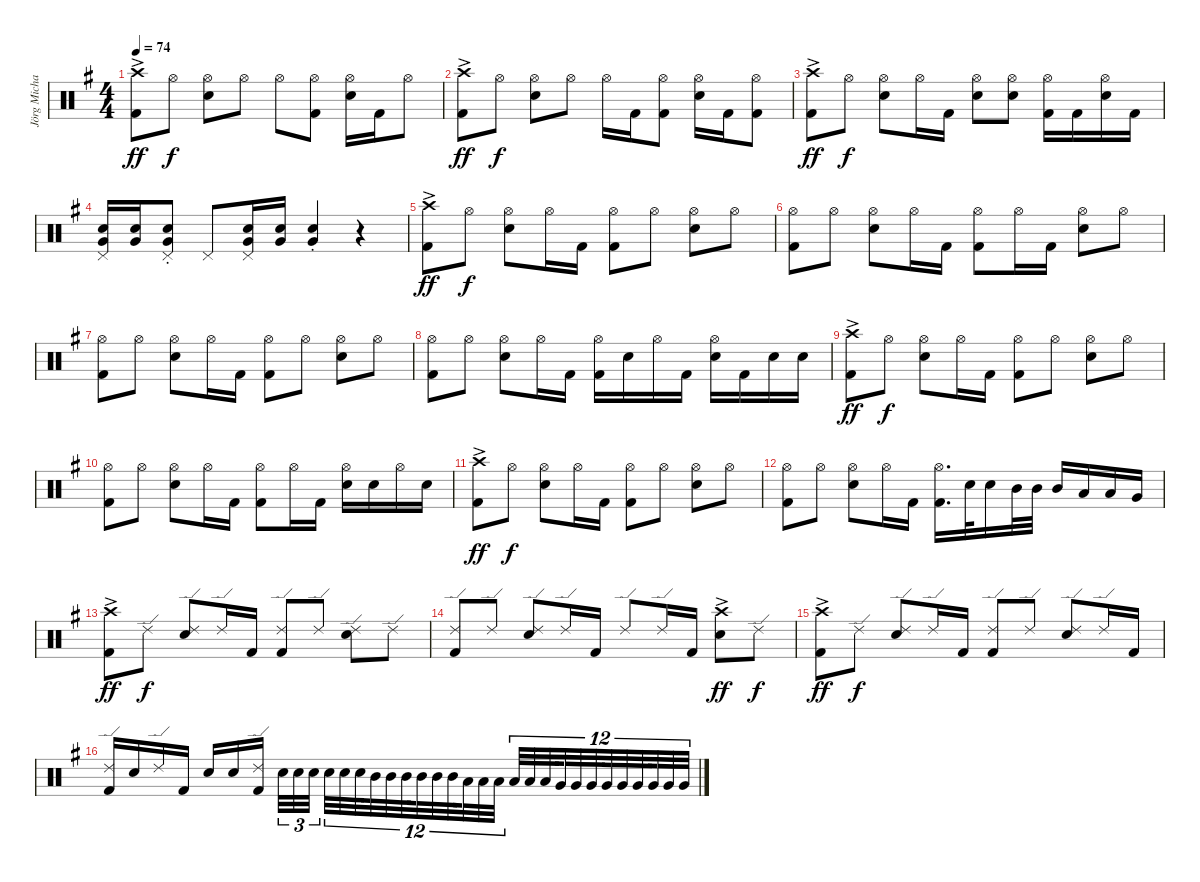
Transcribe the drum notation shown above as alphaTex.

\track ("Jörg Michael" "Jörg Micha") {instrument percussion}
\staff {score}
\articulation defaults
\ts (4 4)
\tempo 74
\clef neutral
\ks g
("Crash high (hit)"{ac} "Kick (hit) 2"{ac}).8{dy ff} "Hi-Hat (open)".8{dy f} ("Hi-Hat (open)" "Electric Snare (hit)").8 "Hi-Hat (open)".8 "Hi-Hat (open)".8 ("Hi-Hat (open)" "Kick (hit) 2").8 ("Hi-Hat (open)" "Electric Snare (hit)").16 "Kick (hit) 2".16 "Hi-Hat (open)".8 |
("Crash high (hit)"{ac} "Kick (hit) 2"{ac}).8{dy ff} "Hi-Hat (open)".8{dy f} ("Hi-Hat (open)" "Electric Snare (hit)").8 "Hi-Hat (open)".8 "Hi-Hat (open)".16 "Kick (hit) 2".16 ("Hi-Hat (open)" "Kick (hit) 2").8 ("Hi-Hat (open)" "Electric Snare (hit)").16 "Kick (hit) 2".16 ("Kick (hit) 2" "Hi-Hat (open)").8 |
("Crash high (hit)"{ac} "Kick (hit) 2"{ac}).8{dy ff} "Hi-Hat (open)".8{dy f} ("Hi-Hat (open)" "Electric Snare (hit)").8 "Hi-Hat (open)".16 "Kick (hit) 2".16 ("Hi-Hat (open)" "Electric Snare (hit)").8 ("Hi-Hat (open)" "Electric Snare (hit)").8 ("Hi-Hat (open)" "Kick (hit) 2").16 "Kick (hit) 2".16 ("Hi-Hat (open)" "Electric Snare (hit)").16 "Kick (hit) 2".16 |
("Electric Snare (hit)" "Very Low Tom (hit)" "Pedal Hi-Hat (hit)").16 ("Electric Snare (hit)" "Very Low Tom (hit)").16 ("Electric Snare (hit)"{st} "Very Low Tom (hit)"{st} "Pedal Hi-Hat (hit)").8 "Pedal Hi-Hat (hit)".8 ("Electric Snare (hit)" "Very Low Tom (hit)" "Pedal Hi-Hat (hit)").16 ("Electric Snare (hit)" "Very Low Tom (hit)").16 ("Electric Snare (hit)"{st} "Very Low Tom (hit)"{st}).4 r.4 |
("Crash high (hit)"{ac} "Kick (hit) 2"{ac}).8{dy ff} "Hi-Hat (open)".8{dy f} ("Hi-Hat (open)" "Electric Snare (hit)").8 "Hi-Hat (open)".16 "Kick (hit) 2".16 ("Hi-Hat (open)" "Kick (hit) 2").8 "Hi-Hat (open)".8 ("Hi-Hat (open)" "Electric Snare (hit)").8 "Hi-Hat (open)".8 |
("Hi-Hat (open)" "Kick (hit) 2").8 "Hi-Hat (open)".8 ("Hi-Hat (open)" "Electric Snare (hit)").8 "Hi-Hat (open)".16 "Kick (hit) 2".16 ("Hi-Hat (open)" "Kick (hit) 2").8 "Hi-Hat (open)".16 "Kick (hit) 2".16 ("Hi-Hat (open)" "Electric Snare (hit)").8 "Hi-Hat (open)".8 |
("Hi-Hat (open)" "Kick (hit) 2").8 "Hi-Hat (open)".8 ("Hi-Hat (open)" "Electric Snare (hit)").8 "Hi-Hat (open)".16 "Kick (hit) 2".16 ("Hi-Hat (open)" "Kick (hit) 2").8 "Hi-Hat (open)".8 ("Hi-Hat (open)" "Electric Snare (hit)").8 "Hi-Hat (open)".8 |
("Hi-Hat (open)" "Kick (hit) 2").8 "Hi-Hat (open)".8 ("Hi-Hat (open)" "Electric Snare (hit)").8 "Hi-Hat (open)".16 "Kick (hit) 2".16 ("Hi-Hat (open)" "Kick (hit) 2").16 "Electric Snare (hit)".16 "Hi-Hat (open)".16 "Kick (hit) 2".16 ("Hi-Hat (open)" "Electric Snare (hit)").16 "Kick (hit) 2".16 "Electric Snare (hit)".16 "Electric Snare (hit)".16 |
("Crash high (hit)"{ac} "Kick (hit) 2"{ac}).8{dy ff} "Hi-Hat (open)".8{dy f} ("Hi-Hat (open)" "Electric Snare (hit)").8 "Hi-Hat (open)".16 "Kick (hit) 2".16 ("Hi-Hat (open)" "Kick (hit) 2").8 "Hi-Hat (open)".8 ("Hi-Hat (open)" "Electric Snare (hit)").8 "Hi-Hat (open)".8 |
("Hi-Hat (open)" "Kick (hit) 2").8 "Hi-Hat (open)".8 ("Hi-Hat (open)" "Electric Snare (hit)").8 "Hi-Hat (open)".16 "Kick (hit) 2".16 ("Hi-Hat (open)" "Kick (hit) 2").8 "Hi-Hat (open)".16 "Kick (hit) 2".16 ("Hi-Hat (open)" "Electric Snare (hit)").16 "Electric Snare (hit)".16 "Hi-Hat (open)".16 "Electric Snare (hit)".16 |
("Crash high (hit)"{ac} "Kick (hit) 2"{ac}).8{dy ff} "Hi-Hat (open)".8{dy f} ("Hi-Hat (open)" "Electric Snare (hit)").8 "Hi-Hat (open)".16 "Kick (hit) 2".16 ("Hi-Hat (open)" "Kick (hit) 2").8 "Hi-Hat (open)".8 ("Hi-Hat (open)" "Electric Snare (hit)").8 "Hi-Hat (open)".8 |
("Hi-Hat (open)" "Kick (hit) 2").8 "Hi-Hat (open)".8 ("Hi-Hat (open)" "Electric Snare (hit)").8 "Hi-Hat (open)".16 "Kick (hit) 2".16 ("Hi-Hat (open)" "Kick (hit) 2").16{d} "Electric Snare (hit)".32 "Electric Snare (hit)".16 "Mid Tom (hit)".32 "Mid Tom (hit)".32 "Mid Tom (hit)".16 "Low Tom (hit)".16 "Low Tom (hit)".16 "Very Low Tom (hit)".16 |
("Crash high (hit)"{ac} "Kick (hit) 2"{ac}).8{dy ff} "Ride (edge) 2".8{dy f} ("Ride (edge) 2" "Electric Snare (hit)").8 "Ride (edge) 2".16 "Kick (hit) 2".16 ("Ride (edge) 2" "Kick (hit) 2").8 "Ride (edge) 2".8 ("Ride (edge) 2" "Electric Snare (hit)").8 "Ride (edge) 2".8 |
("Ride (edge) 2" "Kick (hit) 2").8 "Ride (edge) 2".8 ("Ride (edge) 2" "Electric Snare (hit)").8 "Ride (edge) 2".16 "Kick (hit) 2".16 "Ride (edge) 2".8 "Ride (edge) 2".16 "Kick (hit) 2".16 ("Crash high (hit)"{ac} "Electric Snare (hit)"{ac}).8{dy ff} "Ride (edge) 2".8{dy f} |
("Crash high (hit)"{ac} "Kick (hit) 2"{ac}).8{dy ff} "Ride (edge) 2".8{dy f} ("Ride (edge) 2" "Electric Snare (hit)").8 "Ride (edge) 2".16 "Kick (hit) 2".16 ("Ride (edge) 2" "Kick (hit) 2").8 "Ride (edge) 2".8 ("Ride (edge) 2" "Electric Snare (hit)").8 "Ride (edge) 2".16 "Kick (hit) 2".16 |
("Ride (edge) 2" "Kick (hit) 2").16 "Electric Snare (hit)".16 "Ride (edge) 2".16 "Kick (hit) 2".16 "Electric Snare (hit)".16 "Electric Snare (hit)".16 ("Ride (edge) 2" "Kick (hit) 2").16{beam splitsecondary} "Electric Snare (hit)".32{tu (3 2)} "Electric Snare (hit)".32{tu (3 2)} "Electric Snare (hit)".32{tu (3 2)} "Electric Snare (hit)".32{tu (12 8)} "Electric Snare (hit)".32{tu (12 8)} "Electric Snare (hit)".32{tu (12 8) beam splitsecondary} "Mid Tom (hit)".32{tu (12 8)} "Mid Tom (hit)".32{tu (12 8)} "Mid Tom (hit)".32{tu (12 8) beam splitsecondary} "Mid Tom (hit)".32{tu (12 8)} "Mid Tom (hit)".32{tu (12 8)} "Mid Tom (hit)".32{tu (12 8) beam splitsecondary} "Low Tom (hit)".32{tu (12 8)} "Low Tom (hit)".32{tu (12 8)} "Low Tom (hit)".32{tu (12 8)} "Low Tom (hit)".32{tu (12 8)} "Low Tom (hit)".32{tu (12 8)} "Low Tom (hit)".32{tu (12 8) beam splitsecondary} "Very Low Tom (hit)".32{tu (12 8)} "Very Low Tom (hit)".32{tu (12 8)} "Very Low Tom (hit)".32{tu (12 8) beam splitsecondary} "Very Low Tom (hit)".32{tu (12 8)} "Very Low Tom (hit)".32{tu (12 8)} "Very Low Tom (hit)".32{tu (12 8) beam splitsecondary} "Very Low Tom (hit)".32{tu (12 8)} "Very Low Tom (hit)".32{tu (12 8)} "Very Low Tom (hit)".32{tu (12 8)}
